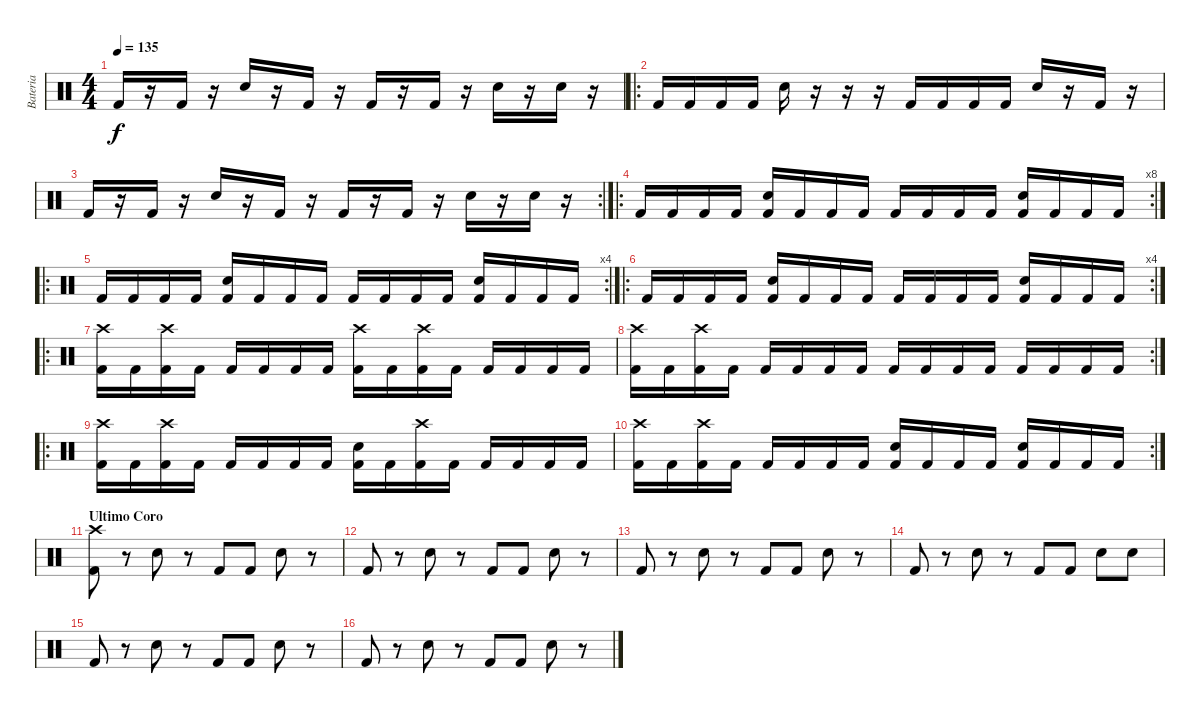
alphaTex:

\track ("Bateria" "Bateria") {instrument percussion}
\staff {score}
\articulation defaults
\ts (4 4)
\tempo 135
\clef neutral
\ks c "Kick (hit) 2".16{dy f}
r.16 "Kick (hit) 2".16 r.16 "Snare (hit) 2".16 r.16 "Kick (hit) 2".16 r.16 "Kick (hit) 2".16 r.16 "Kick (hit) 2".16 r.16 "Snare (hit) 2".16 r.16 "Snare (hit) 2".16 r.16 |
\ro "Kick (hit) 2".16 "Kick (hit) 2".16 "Kick (hit) 2".16 "Kick (hit) 2".16 "Snare (hit) 2".16
r.16 r.16 r.16 "Kick (hit) 2".16 "Kick (hit) 2".16 "Kick (hit) 2".16 "Kick (hit) 2".16 "Snare (hit) 2".16 r.16 "Kick (hit) 2".16 r.16 |
\rc 2 "Kick (hit) 2".16
r.16 "Kick (hit) 2".16 r.16 "Snare (hit) 2".16 r.16 "Kick (hit) 2".16 r.16 "Kick (hit) 2".16 r.16 "Kick (hit) 2".16 r.16 "Snare (hit) 2".16 r.16 "Snare (hit) 2".16 r.16 |
\ro
\rc 8 "Kick (hit) 2".16 "Kick (hit) 2".16 "Kick (hit) 2".16 "Kick (hit) 2".16
("Snare (hit) 2" "Kick (hit) 2").16 "Kick (hit) 2".16 "Kick (hit) 2".16 "Kick (hit) 2".16 "Kick (hit) 2".16 "Kick (hit) 2".16 "Kick (hit) 2".16 "Kick (hit) 2".16 ("Snare (hit) 2" "Kick (hit) 2").16 "Kick (hit) 2".16 "Kick (hit) 2".16 "Kick (hit) 2".16 |
\ro
\rc 4 "Kick (hit) 2".16 "Kick (hit) 2".16 "Kick (hit) 2".16 "Kick (hit) 2".16
("Snare (hit) 2" "Kick (hit) 2").16 "Kick (hit) 2".16 "Kick (hit) 2".16 "Kick (hit) 2".16 "Kick (hit) 2".16 "Kick (hit) 2".16 "Kick (hit) 2".16 "Kick (hit) 2".16 ("Snare (hit) 2" "Kick (hit) 2").16 "Kick (hit) 2".16 "Kick (hit) 2".16 "Kick (hit) 2".16 |
\ro
\rc 4 "Kick (hit) 2".16 "Kick (hit) 2".16 "Kick (hit) 2".16 "Kick (hit) 2".16
("Snare (hit) 2" "Kick (hit) 2").16 "Kick (hit) 2".16 "Kick (hit) 2".16 "Kick (hit) 2".16 "Kick (hit) 2".16 "Kick (hit) 2".16 "Kick (hit) 2".16 "Kick (hit) 2".16 ("Snare (hit) 2" "Kick (hit) 2").16 "Kick (hit) 2".16 "Kick (hit) 2".16 "Kick (hit) 2".16 |
\ro
("Crash high (hit)" "Kick (hit) 2").16 "Kick (hit) 2".16 ("Crash high (hit)" "Kick (hit) 2").16 "Kick (hit) 2".16 "Kick (hit) 2".16 "Kick (hit) 2".16 "Kick (hit) 2".16 "Kick (hit) 2".16 ("Crash high (hit)" "Kick (hit) 2").16 "Kick (hit) 2".16 ("Crash high (hit)" "Kick (hit) 2").16 "Kick (hit) 2".16 "Kick (hit) 2".16 "Kick (hit) 2".16 "Kick (hit) 2".16 "Kick (hit) 2".16 |
\rc 2
("Crash high (hit)" "Kick (hit) 2").16 "Kick (hit) 2".16 ("Crash high (hit)" "Kick (hit) 2").16 "Kick (hit) 2".16 "Kick (hit) 2".16 "Kick (hit) 2".16 "Kick (hit) 2".16 "Kick (hit) 2".16 "Kick (hit) 2".16 "Kick (hit) 2".16 "Kick (hit) 2".16 "Kick (hit) 2".16 "Kick (hit) 2".16 "Kick (hit) 2".16 "Kick (hit) 2".16 "Kick (hit) 2".16 |
\ro
("Crash high (hit)" "Kick (hit) 2").16 "Kick (hit) 2".16 ("Crash high (hit)" "Kick (hit) 2").16 "Kick (hit) 2".16 "Kick (hit) 2".16 "Kick (hit) 2".16 "Kick (hit) 2".16 "Kick (hit) 2".16 ("Snare (hit) 2" "Kick (hit) 2").16 "Kick (hit) 2".16 ("Crash high (hit)" "Kick (hit) 2").16 "Kick (hit) 2".16 "Kick (hit) 2".16 "Kick (hit) 2".16 "Kick (hit) 2".16 "Kick (hit) 2".16 |
\rc 2
("Crash high (hit)" "Kick (hit) 2").16 "Kick (hit) 2".16 ("Crash high (hit)" "Kick (hit) 2").16 "Kick (hit) 2".16 "Kick (hit) 2".16 "Kick (hit) 2".16 "Kick (hit) 2".16 "Kick (hit) 2".16 ("Snare (hit) 2" "Kick (hit) 2").16 "Kick (hit) 2".16 "Kick (hit) 2".16 "Kick (hit) 2".16 ("Snare (hit) 2" "Kick (hit) 2").16 "Kick (hit) 2".16 "Kick (hit) 2".16 "Kick (hit) 2".16 |
\section ("" "Ultimo Coro")
("Crash high (hit)" "Kick (hit) 2").8 r.8 "Snare (hit) 2".8 r.8 "Kick (hit) 2".8 "Kick (hit) 2".8 "Snare (hit) 2".8 r.8 |
"Kick (hit) 2".8 r.8 "Snare (hit) 2".8 r.8 "Kick (hit) 2".8 "Kick (hit) 2".8 "Snare (hit) 2".8 r.8 |
"Kick (hit) 2".8 r.8 "Snare (hit) 2".8 r.8 "Kick (hit) 2".8 "Kick (hit) 2".8 "Snare (hit) 2".8 r.8 |
"Kick (hit) 2".8 r.8 "Snare (hit) 2".8 r.8 "Kick (hit) 2".8 "Kick (hit) 2".8 "Snare (hit) 2".8 "Snare (hit) 2".8 |
"Kick (hit) 2".8 r.8 "Snare (hit) 2".8 r.8 "Kick (hit) 2".8 "Kick (hit) 2".8 "Snare (hit) 2".8 r.8 |
"Kick (hit) 2".8 r.8 "Snare (hit) 2".8 r.8 "Kick (hit) 2".8 "Kick (hit) 2".8 "Snare (hit) 2".8 r.8
